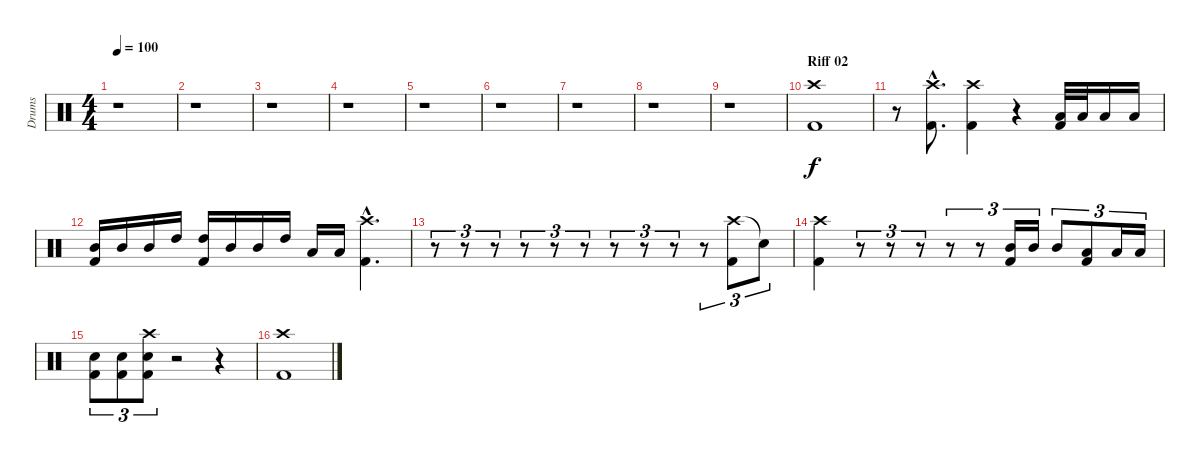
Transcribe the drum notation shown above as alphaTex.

\track ("Drums" "Drums") {instrument percussion}
\staff {score}
\articulation defaults
\ts (4 4)
\tempo 100
\clef neutral
\ks c
r.1{dy f} |
r.1 |
r.1 |
r.1 |
r.1 |
r.1 |
r.1 |
r.1 |
r.1 |
\section ("" "Riff 02")
("Crash high (hit)" "Kick (hit) 2").1 |
r.8 ("Crash high (hit)"{hac} "Kick (hit) 2"{hac}).8{d} ("Crash high (hit)" "Kick (hit) 2").4 r.4 ("Low Tom (hit)" "Kick (hit) 2").32 "Low Tom (hit)".32 "Low Tom (hit)".16 "Low Tom (hit)".16 |
("Mid Tom (hit)" "Kick (hit) 2").16 "Mid Tom (hit)".16 "Mid Tom (hit)".16 "High Tom (hit)".16 ("High Tom (hit)" "Kick (hit) 2").16 "Mid Tom (hit)".16 "Mid Tom (hit)".16 "High Tom (hit)".16 "Low Floor Tom (hit)".16 "Low Floor Tom (hit)".16 ("Crash high (hit)"{hac} "Kick (hit) 2").4{d} |
r.8{tu (3 2)} r.8{tu (3 2)} r.8{tu (3 2)} r.8{tu (3 2)} r.8{tu (3 2)} r.8{tu (3 2)} r.8{tu (3 2)} r.8{tu (3 2)} r.8{tu (3 2)} r.8{tu (3 2)} ("Crash high (hit)" "Kick (hit) 2").8{tu (3 2)} "Snare (hit)"{t}.8{tu (3 2)} |
("Crash high (hit)" "Kick (hit) 2").4 r.8{tu (3 2)} r.8{tu (3 2)} r.8{tu (3 2)} r.8{tu (3 2)} r.8{tu (3 2)} ("Mid Tom (hit)" "Kick (hit) 2").16{tu (3 2)} "Mid Tom (hit)".16{tu (3 2)} "Mid Tom (hit)".8{tu (3 2)} ("Low Tom (hit)" "Kick (hit) 2").8{tu (3 2)} "Low Tom (hit)".16{tu (3 2)} "Low Tom (hit)".16{tu (3 2)} |
("Snare (hit) 2" "Kick (hit) 2").8{tu (3 2)} ("Snare (hit) 2" "Kick (hit) 2").8{tu (3 2)} ("Crash high (hit)" "Snare (hit) 2" "Kick (hit) 2").8{tu (3 2)} r.2 r.4 |
("Crash high (hit)" "Kick (hit) 2").1
